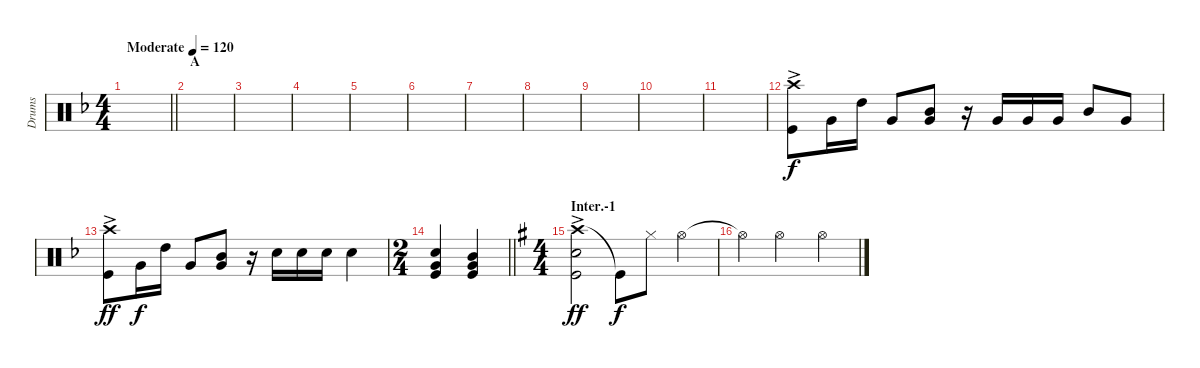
\track ("Drums" "Drums") {instrument percussion}
\staff {score}
\articulation defaults
\ts (4 4)
\tempo (120 "Moderate")
\clef neutral
\barLineRight lightlight
\ks f
|
\section ("" "A")
|
|
|
|
|
|
|
|
|
|
("Crash high (hit)"{ac} "Kick (hit)").8 "Very Low Tom (hit)".16{dy f} "High Tom (hit)".16 "Very Low Tom (hit)".8 ("Mid Tom (hit)" "Very Low Tom (hit)").8 r.16 "Very Low Tom (hit)".16 "Very Low Tom (hit)".16 "Very Low Tom (hit)".16 "Mid Tom (hit)".8 "Very Low Tom (hit)".8 |
("Crash high (hit)"{ac} "Kick (hit)").8{dy ff} "Very Low Tom (hit)".16{dy f} "High Tom (hit)".16 "Very Low Tom (hit)".8 ("Very Low Tom (hit)" "Mid Tom (hit)").8 r.16 "Snare (hit) 2".16 "Snare (hit) 2".16 "Snare (hit) 2".16 "Snare (hit) 2".4 |
\ts (2 4)
\barLineRight lightlight
("Very Low Tom (hit)" "Kick (hit)" "Snare (hit) 2").4 ("Kick (hit)" "Very Low Tom (hit)" "Mid Tom (hit)").4 |
\ts (4 4)
\section ("" "Inter.-1")
\ks g
("Crash high (hit)"{ac} "Snare (hit) 2" "Kick (hit)").2{dy ff} "Kick (hit)"{t}.8{dy f} "Hi-Hat (closed)".8 "Hi-Hat (open)".4 |
"Hi-Hat (open)"{t}.4 "Hi-Hat (open)".2 "Hi-Hat (open)".4
